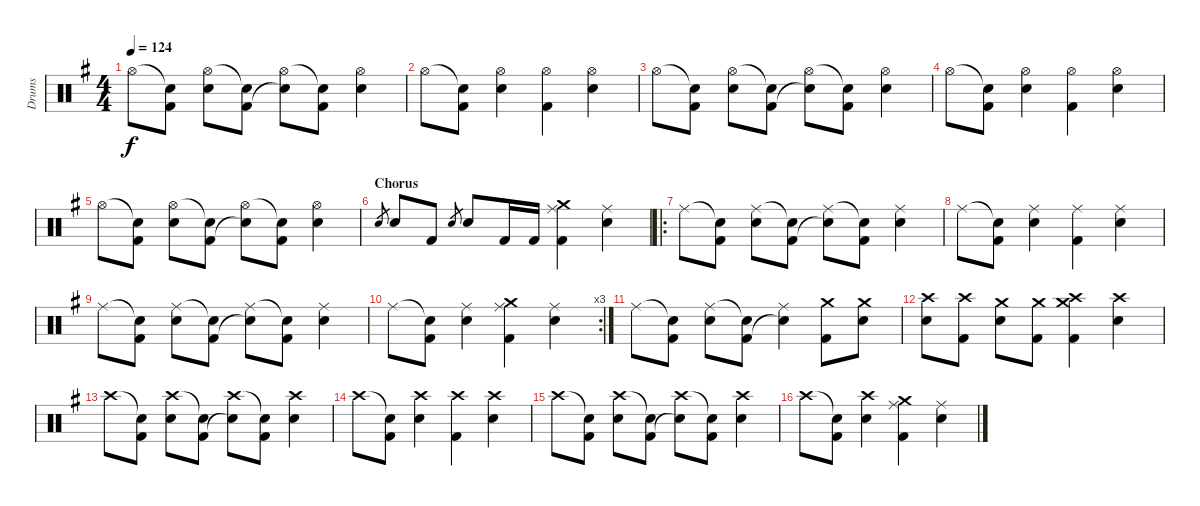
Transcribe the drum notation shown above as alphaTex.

\track ("Drums" "Drums") {instrument percussion}
\staff {score}
\articulation defaults
\ts (4 4)
\tempo 124
\clef neutral
\ks g "Hi-Hat (open)".8{dy f}
("Snare (hit)"{t} "Kick (hit) 2").8 ("Hi-Hat (open)" "Snare (hit) 2").8 ("Snare (hit)"{t} "Kick (hit) 2").8 ("Hi-Hat (open)" "Snare (hit)"{t}).8 ("Snare (hit)"{t} "Kick (hit) 2").8 ("Hi-Hat (open)" "Snare (hit) 2").4 |
"Hi-Hat (open)".8 ("Snare (hit)"{t} "Kick (hit) 2").8 ("Hi-Hat (open)" "Snare (hit) 2").4 ("Hi-Hat (open)" "Kick (hit) 2").4 ("Hi-Hat (open)" "Snare (hit) 2").4 |
"Hi-Hat (open)".8 ("Snare (hit)"{t} "Kick (hit) 2").8 ("Hi-Hat (open)" "Snare (hit) 2").8 ("Snare (hit)"{t} "Kick (hit) 2").8 ("Hi-Hat (open)" "Snare (hit)"{t}).8 ("Snare (hit)"{t} "Kick (hit) 2").8 ("Hi-Hat (open)" "Snare (hit) 2").4 |
"Hi-Hat (open)".8 ("Snare (hit)"{t} "Kick (hit) 2").8 ("Hi-Hat (open)" "Snare (hit) 2").4 ("Hi-Hat (open)" "Kick (hit) 2").4 ("Hi-Hat (open)" "Snare (hit) 2").4 |
"Hi-Hat (open)".8 ("Snare (hit)"{t} "Kick (hit) 2").8 ("Hi-Hat (open)" "Snare (hit) 2").8 ("Snare (hit)"{t} "Kick (hit) 2").8 ("Hi-Hat (open)" "Snare (hit)"{t}).8 ("Snare (hit)"{t} "Kick (hit) 2").8 ("Hi-Hat (open)" "Snare (hit) 2").4 |
\section ("" "Chorus")
"Snare (hit) 2".8{gr} "Snare (hit) 2".8 "Kick (hit) 2".8 "Snare (hit) 2".8{gr} "Snare (hit) 2".8 "Kick (hit) 2".16 "Kick (hit) 2".16 ("Ride (middle)" "Crash medium (hit)" "Kick (hit) 2").4 ("Ride (middle)" "Snare (hit) 2").4 |
\ro "Ride (middle)".8
("Snare (hit)"{t} "Kick (hit) 2").8 ("Ride (middle)" "Snare (hit) 2").8 ("Snare (hit)"{t} "Kick (hit) 2").8 ("Ride (middle)" "Snare (hit)"{t}).8 ("Snare (hit)"{t} "Kick (hit) 2").8 ("Ride (middle)" "Snare (hit) 2").4 |
"Ride (middle)".8 ("Snare (hit)"{t} "Kick (hit) 2").8 ("Ride (middle)" "Snare (hit) 2").4 ("Ride (middle)" "Kick (hit) 2").4 ("Ride (middle)" "Snare (hit) 2").4 |
"Ride (middle)".8 ("Snare (hit)"{t} "Kick (hit) 2").8 ("Ride (middle)" "Snare (hit) 2").8 ("Snare (hit)"{t} "Kick (hit) 2").8 ("Ride (middle)" "Snare (hit)"{t}).8 ("Snare (hit)"{t} "Kick (hit) 2").8 ("Ride (middle)" "Snare (hit) 2").4 |
\rc 3 "Ride (middle)".8
("Snare (hit)"{t} "Kick (hit) 2").8 ("Ride (middle)" "Snare (hit) 2").4 ("Ride (middle)" "Crash medium (hit)" "Kick (hit) 2").4 ("Ride (middle)" "Snare (hit) 2").4 |
"Ride (middle)".8 ("Snare (hit)"{t} "Kick (hit) 2").8 ("Ride (middle)" "Snare (hit) 2").8 ("Snare (hit)"{t} "Kick (hit) 2").8 ("Ride (middle)" "Snare (hit)"{t}).4 ("Crash medium (hit)" "Kick (hit) 2").8 ("Crash medium (hit)" "Snare (hit) 2").8 |
("Crash high (hit)" "Snare (hit) 2").8 ("Crash high (hit)" "Kick (hit) 2").8 ("Crash medium (hit)" "Snare (hit) 2").8 ("Crash medium (hit)" "Kick (hit) 2").8 ("Crash high (hit)" "Crash medium (hit)" "Kick (hit) 2").4 ("Crash high (hit)" "Snare (hit) 2").4 |
"Crash high (hit)".8 ("Snare (hit)"{t} "Kick (hit) 2").8 ("Crash high (hit)" "Snare (hit) 2").8 ("Snare (hit)"{t} "Kick (hit) 2").8 ("Crash high (hit)" "Snare (hit)"{t}).8 ("Snare (hit)"{t} "Kick (hit) 2").8 ("Crash high (hit)" "Snare (hit) 2").4 |
"Crash high (hit)".8 ("Snare (hit)"{t} "Kick (hit) 2").8 ("Crash high (hit)" "Snare (hit) 2").4 ("Crash high (hit)" "Kick (hit) 2").4 ("Crash high (hit)" "Snare (hit) 2").4 |
"Crash high (hit)".8 ("Snare (hit)"{t} "Kick (hit) 2").8 ("Crash high (hit)" "Snare (hit) 2").8 ("Snare (hit)"{t} "Kick (hit) 2").8 ("Crash high (hit)" "Snare (hit)"{t}).8 ("Snare (hit)"{t} "Kick (hit) 2").8 ("Crash high (hit)" "Snare (hit) 2").4 |
"Crash high (hit)".8 ("Snare (hit)"{t} "Kick (hit) 2").8 ("Crash high (hit)" "Snare (hit) 2").4 ("Ride (middle)" "Crash medium (hit)" "Kick (hit) 2").4 ("Ride (middle)" "Snare (hit) 2").4
